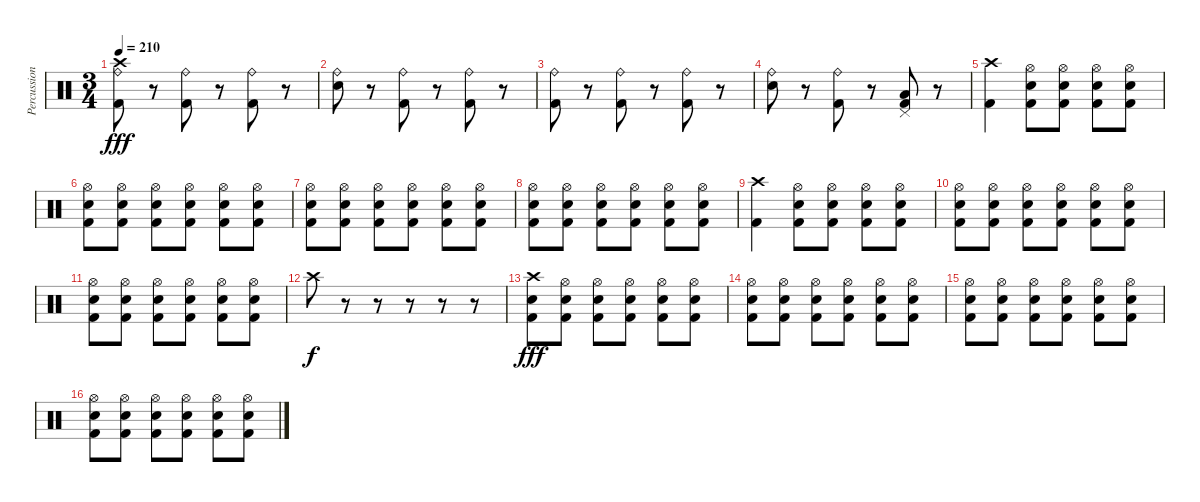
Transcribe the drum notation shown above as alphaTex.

\track ("Percussion" "Percussion") {instrument percussion}
\staff {score}
\articulation defaults
\ts (3 4)
\tempo 210
\clef neutral
\ks c
("Crash high (hit)" "Ride (bell)" "Kick (hit) 2").8{dy fff} r.8 ("Ride (bell)" "Kick (hit) 2").8 r.8 ("Ride (bell)" "Kick (hit) 2").8 r.8 |
("Ride (bell)" "Electric Snare (hit)").8 r.8 ("Ride (bell)" "Kick (hit) 2").8 r.8 ("Ride (bell)" "Kick (hit) 2").8 r.8 |
("Ride (bell)" "Kick (hit) 2").8 r.8 ("Ride (bell)" "Kick (hit) 2").8 r.8 ("Ride (bell)" "Kick (hit) 2").8 r.8 |
("Ride (bell)" "Electric Snare (hit)").8 r.8 ("Ride (bell)" "Kick (hit) 2").8 r.8 ("Pedal Hi-Hat (hit)" "Low Floor Tom (hit)" "Kick (hit) 2").8 r.8 |
("Crash high (hit)" "Kick (hit) 2").4 ("Hi-Hat (open)" "Electric Snare (hit)" "Kick (hit) 2").8 ("Hi-Hat (open)" "Electric Snare (hit)" "Kick (hit) 2").8 ("Hi-Hat (open)" "Electric Snare (hit)" "Kick (hit) 2").8 ("Hi-Hat (open)" "Electric Snare (hit)" "Kick (hit) 2").8 |
("Hi-Hat (open)" "Electric Snare (hit)" "Kick (hit) 2").8 ("Hi-Hat (open)" "Electric Snare (hit)" "Kick (hit) 2").8 ("Hi-Hat (open)" "Electric Snare (hit)" "Kick (hit) 2").8 ("Hi-Hat (open)" "Electric Snare (hit)" "Kick (hit) 2").8 ("Hi-Hat (open)" "Electric Snare (hit)" "Kick (hit) 2").8 ("Hi-Hat (open)" "Electric Snare (hit)" "Kick (hit) 2").8 |
("Hi-Hat (open)" "Electric Snare (hit)" "Kick (hit) 2").8 ("Hi-Hat (open)" "Electric Snare (hit)" "Kick (hit) 2").8 ("Hi-Hat (open)" "Electric Snare (hit)" "Kick (hit) 2").8 ("Hi-Hat (open)" "Electric Snare (hit)" "Kick (hit) 2").8 ("Hi-Hat (open)" "Electric Snare (hit)" "Kick (hit) 2").8 ("Hi-Hat (open)" "Electric Snare (hit)" "Kick (hit) 2").8 |
("Hi-Hat (open)" "Electric Snare (hit)" "Kick (hit) 2").8 ("Hi-Hat (open)" "Electric Snare (hit)" "Kick (hit) 2").8 ("Hi-Hat (open)" "Electric Snare (hit)" "Kick (hit) 2").8 ("Hi-Hat (open)" "Electric Snare (hit)" "Kick (hit) 2").8 ("Hi-Hat (open)" "Electric Snare (hit)" "Kick (hit) 2").8 ("Hi-Hat (open)" "Electric Snare (hit)" "Kick (hit) 2").8 |
("Crash high (hit)" "Kick (hit) 2").4 ("Hi-Hat (open)" "Electric Snare (hit)" "Kick (hit) 2").8 ("Hi-Hat (open)" "Electric Snare (hit)" "Kick (hit) 2").8 ("Hi-Hat (open)" "Electric Snare (hit)" "Kick (hit) 2").8 ("Hi-Hat (open)" "Electric Snare (hit)" "Kick (hit) 2").8 |
("Hi-Hat (open)" "Electric Snare (hit)" "Kick (hit) 2").8 ("Hi-Hat (open)" "Electric Snare (hit)" "Kick (hit) 2").8 ("Hi-Hat (open)" "Electric Snare (hit)" "Kick (hit) 2").8 ("Hi-Hat (open)" "Electric Snare (hit)" "Kick (hit) 2").8 ("Hi-Hat (open)" "Electric Snare (hit)" "Kick (hit) 2").8 ("Hi-Hat (open)" "Electric Snare (hit)" "Kick (hit) 2").8 |
("Hi-Hat (open)" "Electric Snare (hit)" "Kick (hit) 2").8 ("Hi-Hat (open)" "Electric Snare (hit)" "Kick (hit) 2").8 ("Hi-Hat (open)" "Electric Snare (hit)" "Kick (hit) 2").8 ("Hi-Hat (open)" "Electric Snare (hit)" "Kick (hit) 2").8 ("Hi-Hat (open)" "Electric Snare (hit)" "Kick (hit) 2").8 ("Hi-Hat (open)" "Electric Snare (hit)" "Kick (hit) 2").8 |
"Crash high (hit)".8{dy f volume 0} r.8 r.8 r.8 r.8 r.8 |
("Crash high (hit)" "Electric Snare (hit)" "Kick (hit) 2").8{dy fff volume 16} ("Hi-Hat (open)" "Electric Snare (hit)" "Kick (hit) 2").8 ("Hi-Hat (open)" "Electric Snare (hit)" "Kick (hit) 2").8 ("Hi-Hat (open)" "Electric Snare (hit)" "Kick (hit) 2").8 ("Hi-Hat (open)" "Electric Snare (hit)" "Kick (hit) 2").8 ("Hi-Hat (open)" "Electric Snare (hit)" "Kick (hit) 2").8 |
("Hi-Hat (open)" "Electric Snare (hit)" "Kick (hit) 2").8 ("Hi-Hat (open)" "Electric Snare (hit)" "Kick (hit) 2").8 ("Hi-Hat (open)" "Electric Snare (hit)" "Kick (hit) 2").8 ("Hi-Hat (open)" "Electric Snare (hit)" "Kick (hit) 2").8 ("Hi-Hat (open)" "Electric Snare (hit)" "Kick (hit) 2").8 ("Hi-Hat (open)" "Electric Snare (hit)" "Kick (hit) 2").8 |
("Hi-Hat (open)" "Electric Snare (hit)" "Kick (hit) 2").8 ("Hi-Hat (open)" "Electric Snare (hit)" "Kick (hit) 2").8 ("Hi-Hat (open)" "Electric Snare (hit)" "Kick (hit) 2").8 ("Hi-Hat (open)" "Electric Snare (hit)" "Kick (hit) 2").8 ("Hi-Hat (open)" "Electric Snare (hit)" "Kick (hit) 2").8 ("Hi-Hat (open)" "Electric Snare (hit)" "Kick (hit) 2").8 |
("Hi-Hat (open)" "Electric Snare (hit)" "Kick (hit) 2").8 ("Hi-Hat (open)" "Electric Snare (hit)" "Kick (hit) 2").8 ("Hi-Hat (open)" "Electric Snare (hit)" "Kick (hit) 2").8 ("Hi-Hat (open)" "Electric Snare (hit)" "Kick (hit) 2").8 ("Hi-Hat (open)" "Electric Snare (hit)" "Kick (hit) 2").8 ("Hi-Hat (open)" "Electric Snare (hit)" "Kick (hit) 2").8
